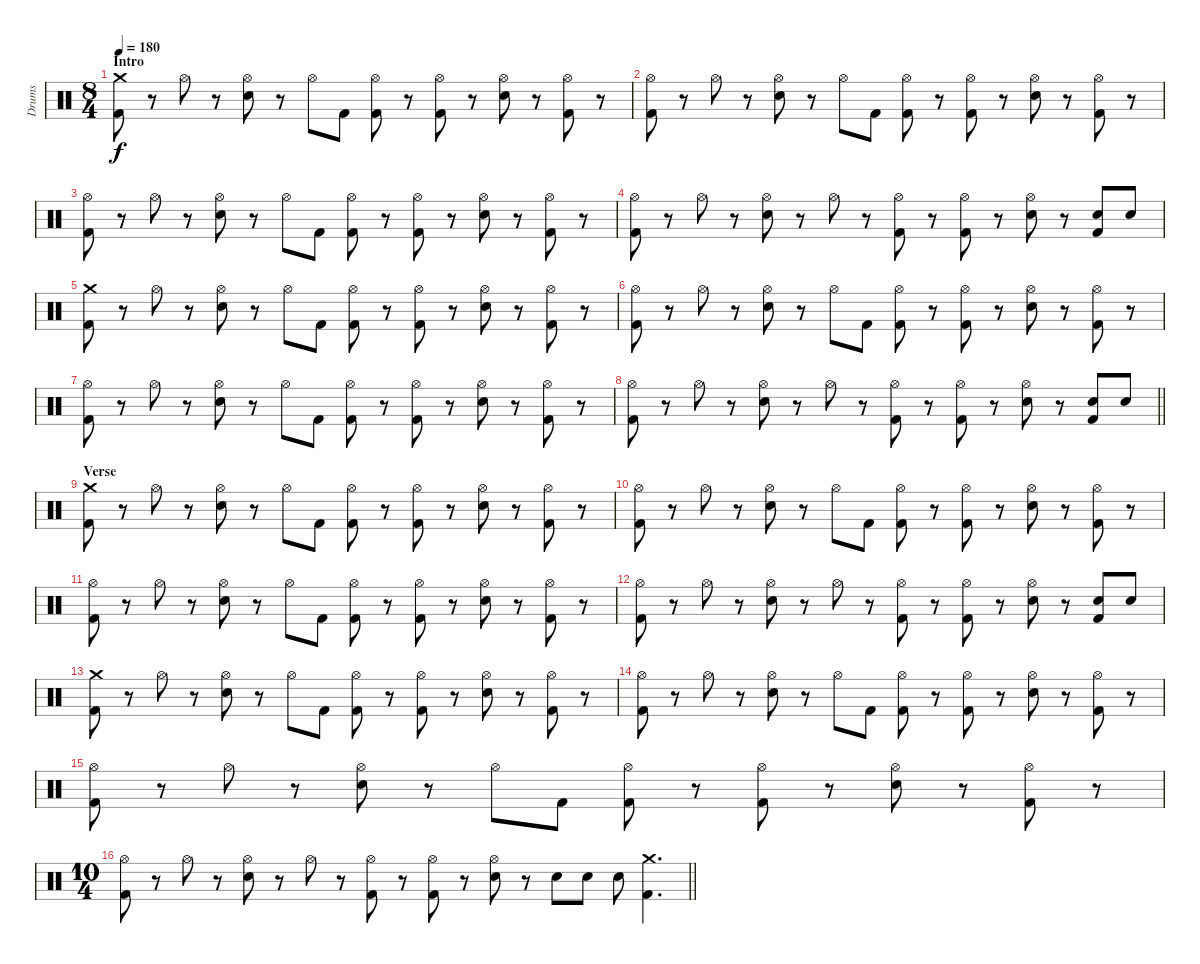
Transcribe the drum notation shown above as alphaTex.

\track ("Drums" "Drums") {instrument percussion}
\staff {score}
\articulation defaults
\ts (8 4)
\section ("" "Intro")
\tempo 180
\clef neutral
\ks c
("Crash medium (hit)" "Kick (hit) 2").8{dy f} r.8 "Hi-Hat (open)".8 r.8 ("Hi-Hat (open)" "Snare (hit) 2").8 r.8 "Hi-Hat (open)".8 "Kick (hit) 2".8 ("Hi-Hat (open)" "Kick (hit) 2").8 r.8 ("Hi-Hat (open)" "Kick (hit) 2").8 r.8 ("Hi-Hat (open)" "Snare (hit) 2").8 r.8 ("Hi-Hat (open)" "Kick (hit) 2").8 r.8 |
("Hi-Hat (open)" "Kick (hit) 2").8 r.8 "Hi-Hat (open)".8 r.8 ("Hi-Hat (open)" "Snare (hit) 2").8 r.8 "Hi-Hat (open)".8 "Kick (hit) 2".8 ("Hi-Hat (open)" "Kick (hit) 2").8 r.8 ("Hi-Hat (open)" "Kick (hit) 2").8 r.8 ("Hi-Hat (open)" "Snare (hit) 2").8 r.8 ("Hi-Hat (open)" "Kick (hit) 2").8 r.8 |
("Hi-Hat (open)" "Kick (hit) 2").8 r.8 "Hi-Hat (open)".8 r.8 ("Hi-Hat (open)" "Snare (hit) 2").8 r.8 "Hi-Hat (open)".8 "Kick (hit) 2".8 ("Hi-Hat (open)" "Kick (hit) 2").8 r.8 ("Hi-Hat (open)" "Kick (hit) 2").8 r.8 ("Hi-Hat (open)" "Snare (hit) 2").8 r.8 ("Hi-Hat (open)" "Kick (hit) 2").8 r.8 |
("Hi-Hat (open)" "Kick (hit) 2").8 r.8 "Hi-Hat (open)".8 r.8 ("Hi-Hat (open)" "Snare (hit) 2").8 r.8 "Hi-Hat (open)".8 r.8 ("Hi-Hat (open)" "Kick (hit) 2").8 r.8 ("Hi-Hat (open)" "Kick (hit) 2").8 r.8 ("Hi-Hat (open)" "Snare (hit) 2").8 r.8 ("Snare (hit) 2" "Kick (hit) 2").8 "Snare (hit) 2".8 |
("Crash medium (hit)" "Kick (hit) 2").8 r.8 "Hi-Hat (open)".8 r.8 ("Hi-Hat (open)" "Snare (hit) 2").8 r.8 "Hi-Hat (open)".8 "Kick (hit) 2".8 ("Hi-Hat (open)" "Kick (hit) 2").8 r.8 ("Hi-Hat (open)" "Kick (hit) 2").8 r.8 ("Hi-Hat (open)" "Snare (hit) 2").8 r.8 ("Hi-Hat (open)" "Kick (hit) 2").8 r.8 |
("Hi-Hat (open)" "Kick (hit) 2").8 r.8 "Hi-Hat (open)".8 r.8 ("Hi-Hat (open)" "Snare (hit) 2").8 r.8 "Hi-Hat (open)".8 "Kick (hit) 2".8 ("Hi-Hat (open)" "Kick (hit) 2").8 r.8 ("Hi-Hat (open)" "Kick (hit) 2").8 r.8 ("Hi-Hat (open)" "Snare (hit) 2").8 r.8 ("Hi-Hat (open)" "Kick (hit) 2").8 r.8 |
("Hi-Hat (open)" "Kick (hit) 2").8 r.8 "Hi-Hat (open)".8 r.8 ("Hi-Hat (open)" "Snare (hit) 2").8 r.8 "Hi-Hat (open)".8 "Kick (hit) 2".8 ("Hi-Hat (open)" "Kick (hit) 2").8 r.8 ("Hi-Hat (open)" "Kick (hit) 2").8 r.8 ("Hi-Hat (open)" "Snare (hit) 2").8 r.8 ("Hi-Hat (open)" "Kick (hit) 2").8 r.8 |
\barLineRight lightlight
("Hi-Hat (open)" "Kick (hit) 2").8 r.8 "Hi-Hat (open)".8 r.8 ("Hi-Hat (open)" "Snare (hit) 2").8 r.8 "Hi-Hat (open)".8 r.8 ("Hi-Hat (open)" "Kick (hit) 2").8 r.8 ("Hi-Hat (open)" "Kick (hit) 2").8 r.8 ("Hi-Hat (open)" "Snare (hit) 2").8 r.8 ("Snare (hit) 2" "Kick (hit) 2").8 "Snare (hit) 2".8 |
\section ("" "Verse")
("Crash medium (hit)" "Kick (hit) 2").8 r.8 "Hi-Hat (open)".8 r.8 ("Hi-Hat (open)" "Snare (hit) 2").8 r.8 "Hi-Hat (open)".8 "Kick (hit) 2".8 ("Hi-Hat (open)" "Kick (hit) 2").8 r.8 ("Hi-Hat (open)" "Kick (hit) 2").8 r.8 ("Hi-Hat (open)" "Snare (hit) 2").8 r.8 ("Hi-Hat (open)" "Kick (hit) 2").8 r.8 |
("Hi-Hat (open)" "Kick (hit) 2").8 r.8 "Hi-Hat (open)".8 r.8 ("Hi-Hat (open)" "Snare (hit) 2").8 r.8 "Hi-Hat (open)".8 "Kick (hit) 2".8 ("Hi-Hat (open)" "Kick (hit) 2").8 r.8 ("Hi-Hat (open)" "Kick (hit) 2").8 r.8 ("Hi-Hat (open)" "Snare (hit) 2").8 r.8 ("Hi-Hat (open)" "Kick (hit) 2").8 r.8 |
("Hi-Hat (open)" "Kick (hit) 2").8 r.8 "Hi-Hat (open)".8 r.8 ("Hi-Hat (open)" "Snare (hit) 2").8 r.8 "Hi-Hat (open)".8 "Kick (hit) 2".8 ("Hi-Hat (open)" "Kick (hit) 2").8 r.8 ("Hi-Hat (open)" "Kick (hit) 2").8 r.8 ("Hi-Hat (open)" "Snare (hit) 2").8 r.8 ("Hi-Hat (open)" "Kick (hit) 2").8 r.8 |
("Hi-Hat (open)" "Kick (hit) 2").8 r.8 "Hi-Hat (open)".8 r.8 ("Hi-Hat (open)" "Snare (hit) 2").8 r.8 "Hi-Hat (open)".8 r.8 ("Hi-Hat (open)" "Kick (hit) 2").8 r.8 ("Hi-Hat (open)" "Kick (hit) 2").8 r.8 ("Hi-Hat (open)" "Snare (hit) 2").8 r.8 ("Snare (hit) 2" "Kick (hit) 2").8 "Snare (hit) 2".8 |
("Crash medium (hit)" "Kick (hit) 2").8 r.8 "Hi-Hat (open)".8 r.8 ("Hi-Hat (open)" "Snare (hit) 2").8 r.8 "Hi-Hat (open)".8 "Kick (hit) 2".8 ("Hi-Hat (open)" "Kick (hit) 2").8 r.8 ("Hi-Hat (open)" "Kick (hit) 2").8 r.8 ("Hi-Hat (open)" "Snare (hit) 2").8 r.8 ("Hi-Hat (open)" "Kick (hit) 2").8 r.8 |
("Hi-Hat (open)" "Kick (hit) 2").8 r.8 "Hi-Hat (open)".8 r.8 ("Hi-Hat (open)" "Snare (hit) 2").8 r.8 "Hi-Hat (open)".8 "Kick (hit) 2".8 ("Hi-Hat (open)" "Kick (hit) 2").8 r.8 ("Hi-Hat (open)" "Kick (hit) 2").8 r.8 ("Hi-Hat (open)" "Snare (hit) 2").8 r.8 ("Hi-Hat (open)" "Kick (hit) 2").8 r.8 |
("Hi-Hat (open)" "Kick (hit) 2").8 r.8 "Hi-Hat (open)".8 r.8 ("Hi-Hat (open)" "Snare (hit) 2").8 r.8 "Hi-Hat (open)".8 "Kick (hit) 2".8 ("Hi-Hat (open)" "Kick (hit) 2").8 r.8 ("Hi-Hat (open)" "Kick (hit) 2").8 r.8 ("Hi-Hat (open)" "Snare (hit) 2").8 r.8 ("Hi-Hat (open)" "Kick (hit) 2").8 r.8 |
\ts (10 4)
\barLineRight lightlight
("Hi-Hat (open)" "Kick (hit) 2").8 r.8 "Hi-Hat (open)".8 r.8 ("Hi-Hat (open)" "Snare (hit) 2").8 r.8 "Hi-Hat (open)".8 r.8 ("Hi-Hat (open)" "Kick (hit) 2").8 r.8 ("Hi-Hat (open)" "Kick (hit) 2").8 r.8 ("Hi-Hat (open)" "Snare (hit) 2").8 r.8 "Snare (hit) 2".8 "Snare (hit) 2".8 "Snare (hit) 2".8 ("Crash medium (hit)" "Kick (hit) 2").4{d}
